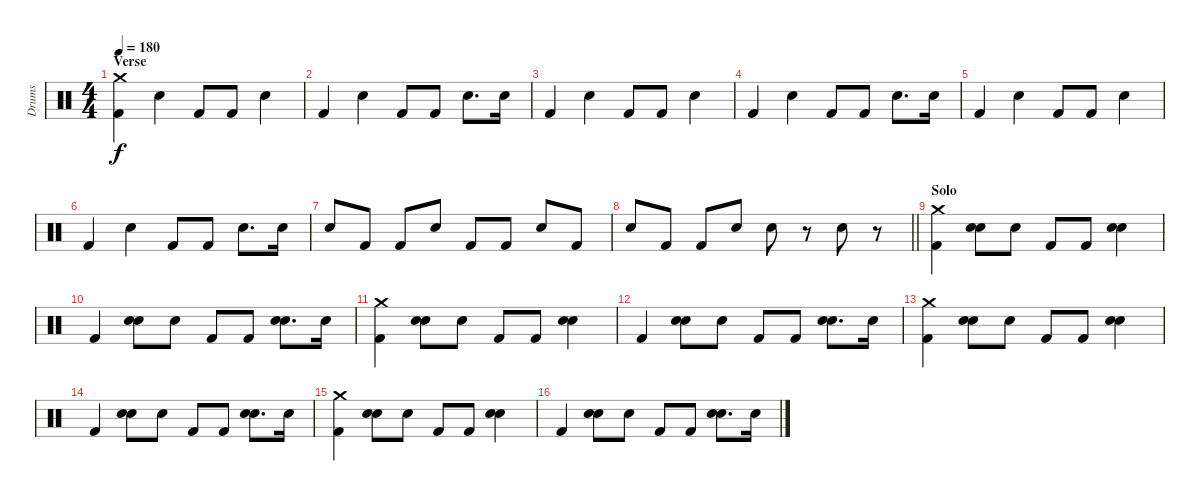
\track ("Drums" "Drums") {instrument percussion}
\staff {score}
\articulation defaults
\ts (4 4)
\section ("" "Verse")
\tempo 180
\clef neutral
\ks c
("Kick (hit) 2" "Crash medium (hit)").4{dy f volume 15} "Snare (hit) 2".4 "Kick (hit) 2".8 "Kick (hit) 2".8 "Snare (hit) 2".4 |
"Kick (hit) 2".4 "Snare (hit) 2".4 "Kick (hit) 2".8 "Kick (hit) 2".8 "Snare (hit) 2".8{d} "Snare (hit) 2".16 |
"Kick (hit) 2".4 "Snare (hit) 2".4 "Kick (hit) 2".8 "Kick (hit) 2".8 "Snare (hit) 2".4 |
"Kick (hit) 2".4 "Snare (hit) 2".4 "Kick (hit) 2".8 "Kick (hit) 2".8 "Snare (hit) 2".8{d} "Snare (hit) 2".16 |
"Kick (hit) 2".4 "Snare (hit) 2".4 "Kick (hit) 2".8 "Kick (hit) 2".8 "Snare (hit) 2".4 |
"Kick (hit) 2".4 "Snare (hit) 2".4 "Kick (hit) 2".8 "Kick (hit) 2".8 "Snare (hit) 2".8{d} "Snare (hit) 2".16 |
"Snare (hit) 2".8 "Kick (hit) 2".8 "Kick (hit) 2".8 "Snare (hit) 2".8 "Kick (hit) 2".8 "Kick (hit) 2".8 "Snare (hit) 2".8 "Kick (hit) 2".8 |
\barLineRight lightlight "Snare (hit) 2".8 "Kick (hit) 2".8 "Kick (hit) 2".8 "Snare (hit) 2".8 "Snare (hit) 2".8
r.8 "Snare (hit) 2".8 r.8 |
\section ("" "Solo")
("Kick (hit) 2" "Crash medium (hit)").4 ("Snare (hit) 2" "Hand Clap (hit)").8 "Hand Clap (hit)".8 "Kick (hit) 2".8 "Kick (hit) 2".8 ("Snare (hit) 2" "Hand Clap (hit)").4 |
"Kick (hit) 2".4 ("Snare (hit) 2" "Hand Clap (hit)").8 "Hand Clap (hit)".8 "Kick (hit) 2".8 "Kick (hit) 2".8 ("Snare (hit) 2" "Hand Clap (hit)").8{d} "Snare (hit) 2".16 |
("Kick (hit) 2" "Crash medium (hit)").4 ("Snare (hit) 2" "Hand Clap (hit)").8 "Hand Clap (hit)".8 "Kick (hit) 2".8 "Kick (hit) 2".8 ("Snare (hit) 2" "Hand Clap (hit)").4 |
"Kick (hit) 2".4 ("Snare (hit) 2" "Hand Clap (hit)").8 "Hand Clap (hit)".8 "Kick (hit) 2".8 "Kick (hit) 2".8 ("Snare (hit) 2" "Hand Clap (hit)").8{d} "Snare (hit) 2".16 |
("Kick (hit) 2" "Crash medium (hit)").4 ("Snare (hit) 2" "Hand Clap (hit)").8 "Hand Clap (hit)".8 "Kick (hit) 2".8 "Kick (hit) 2".8 ("Snare (hit) 2" "Hand Clap (hit)").4 |
"Kick (hit) 2".4 ("Snare (hit) 2" "Hand Clap (hit)").8 "Hand Clap (hit)".8 "Kick (hit) 2".8 "Kick (hit) 2".8 ("Snare (hit) 2" "Hand Clap (hit)").8{d} "Snare (hit) 2".16 |
("Kick (hit) 2" "Crash medium (hit)").4 ("Snare (hit) 2" "Hand Clap (hit)").8 "Hand Clap (hit)".8 "Kick (hit) 2".8 "Kick (hit) 2".8 ("Snare (hit) 2" "Hand Clap (hit)").4 |
"Kick (hit) 2".4 ("Snare (hit) 2" "Hand Clap (hit)").8 "Hand Clap (hit)".8 "Kick (hit) 2".8 "Kick (hit) 2".8 ("Snare (hit) 2" "Hand Clap (hit)").8{d} "Snare (hit) 2".16
